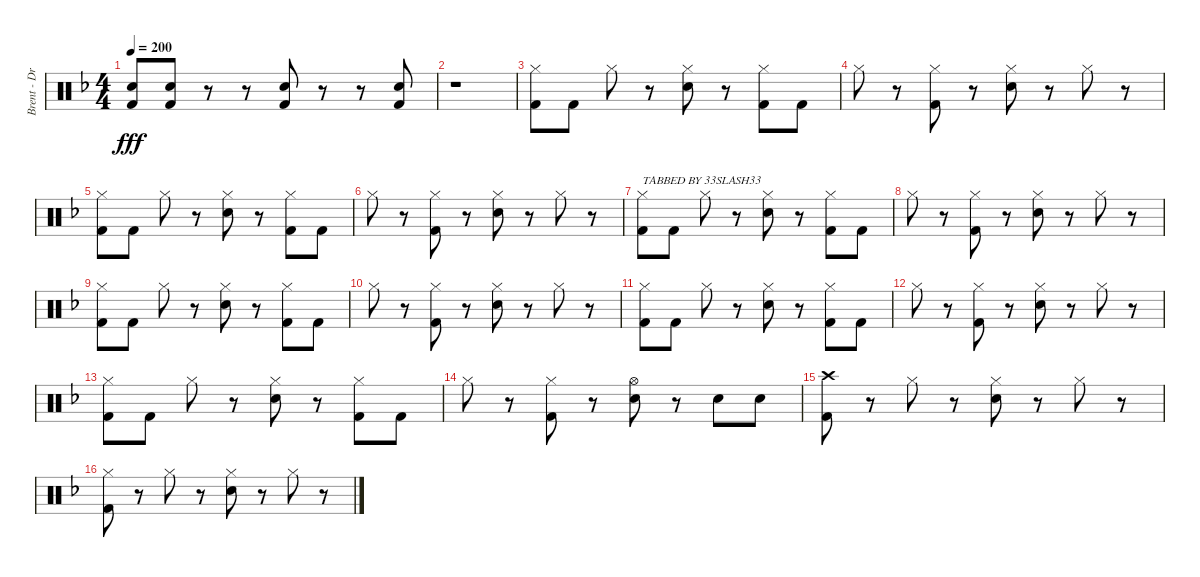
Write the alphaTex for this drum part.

\track ("Brent - Drums" "Brent - Dr") {instrument percussion}
\staff {score}
\articulation defaults
\ts (4 4)
\tempo 200
\clef neutral
\ks dminor
("Snare (hit) 2" "Kick (hit) 2").8{dy fff} ("Snare (hit) 2" "Kick (hit) 2").8 r.8 r.8 ("Snare (hit) 2" "Kick (hit) 2").8 r.8 r.8 ("Snare (hit) 2" "Kick (hit) 2").8 |
r.1 |
("Hi-Hat (closed)" "Kick (hit) 2").8 "Kick (hit) 2".8 "Hi-Hat (closed)".8 r.8 ("Hi-Hat (closed)" "Snare (hit) 2").8 r.8 ("Hi-Hat (closed)" "Kick (hit) 2").8 "Kick (hit) 2".8 |
"Hi-Hat (closed)".8 r.8 ("Hi-Hat (closed)" "Kick (hit) 2").8 r.8 ("Hi-Hat (closed)" "Snare (hit) 2").8 r.8 "Hi-Hat (closed)".8 r.8 |
("Hi-Hat (closed)" "Kick (hit) 2").8 "Kick (hit) 2".8 "Hi-Hat (closed)".8 r.8 ("Hi-Hat (closed)" "Snare (hit) 2").8 r.8 ("Hi-Hat (closed)" "Kick (hit) 2").8 "Kick (hit) 2".8 |
"Hi-Hat (closed)".8 r.8 ("Hi-Hat (closed)" "Kick (hit) 2").8 r.8 ("Hi-Hat (closed)" "Snare (hit) 2").8 r.8 "Hi-Hat (closed)".8 r.8 |
("Hi-Hat (closed)" "Kick (hit) 2").8{txt "TABBED BY 33SLASH33"} "Kick (hit) 2".8 "Hi-Hat (closed)".8 r.8 ("Hi-Hat (closed)" "Snare (hit) 2").8 r.8 ("Hi-Hat (closed)" "Kick (hit) 2").8 "Kick (hit) 2".8 |
"Hi-Hat (closed)".8 r.8 ("Hi-Hat (closed)" "Kick (hit) 2").8 r.8 ("Hi-Hat (closed)" "Snare (hit) 2").8 r.8 "Hi-Hat (closed)".8 r.8 |
("Hi-Hat (closed)" "Kick (hit) 2").8 "Kick (hit) 2".8 "Hi-Hat (closed)".8 r.8 ("Hi-Hat (closed)" "Snare (hit) 2").8 r.8 ("Hi-Hat (closed)" "Kick (hit) 2").8 "Kick (hit) 2".8 |
"Hi-Hat (closed)".8 r.8 ("Hi-Hat (closed)" "Kick (hit) 2").8 r.8 ("Hi-Hat (closed)" "Snare (hit) 2").8 r.8 "Hi-Hat (closed)".8 r.8 |
("Hi-Hat (closed)" "Kick (hit) 2").8 "Kick (hit) 2".8 "Hi-Hat (closed)".8 r.8 ("Hi-Hat (closed)" "Snare (hit) 2").8 r.8 ("Hi-Hat (closed)" "Kick (hit) 2").8 "Kick (hit) 2".8 |
"Hi-Hat (closed)".8 r.8 ("Hi-Hat (closed)" "Kick (hit) 2").8 r.8 ("Hi-Hat (closed)" "Snare (hit) 2").8 r.8 "Hi-Hat (closed)".8 r.8 |
("Hi-Hat (closed)" "Kick (hit) 2").8 "Kick (hit) 2".8 "Hi-Hat (closed)".8 r.8 ("Hi-Hat (closed)" "Snare (hit) 2").8 r.8 ("Hi-Hat (closed)" "Kick (hit) 2").8 "Kick (hit) 2".8 |
"Hi-Hat (closed)".8 r.8 ("Hi-Hat (closed)" "Kick (hit) 2").8 r.8 ("Hi-Hat (open)" "Snare (hit) 2").8 r.8 "Snare (hit) 2".8 "Snare (hit) 2".8 |
("Crash high (hit)" "Kick (hit) 2").8 r.8 "Hi-Hat (closed)".8 r.8 ("Hi-Hat (closed)" "Snare (hit) 2").8 r.8 "Hi-Hat (closed)".8 r.8 |
("Hi-Hat (closed)" "Kick (hit) 2").8 r.8 "Hi-Hat (closed)".8 r.8 ("Hi-Hat (closed)" "Snare (hit) 2").8 r.8 "Hi-Hat (closed)".8 r.8
